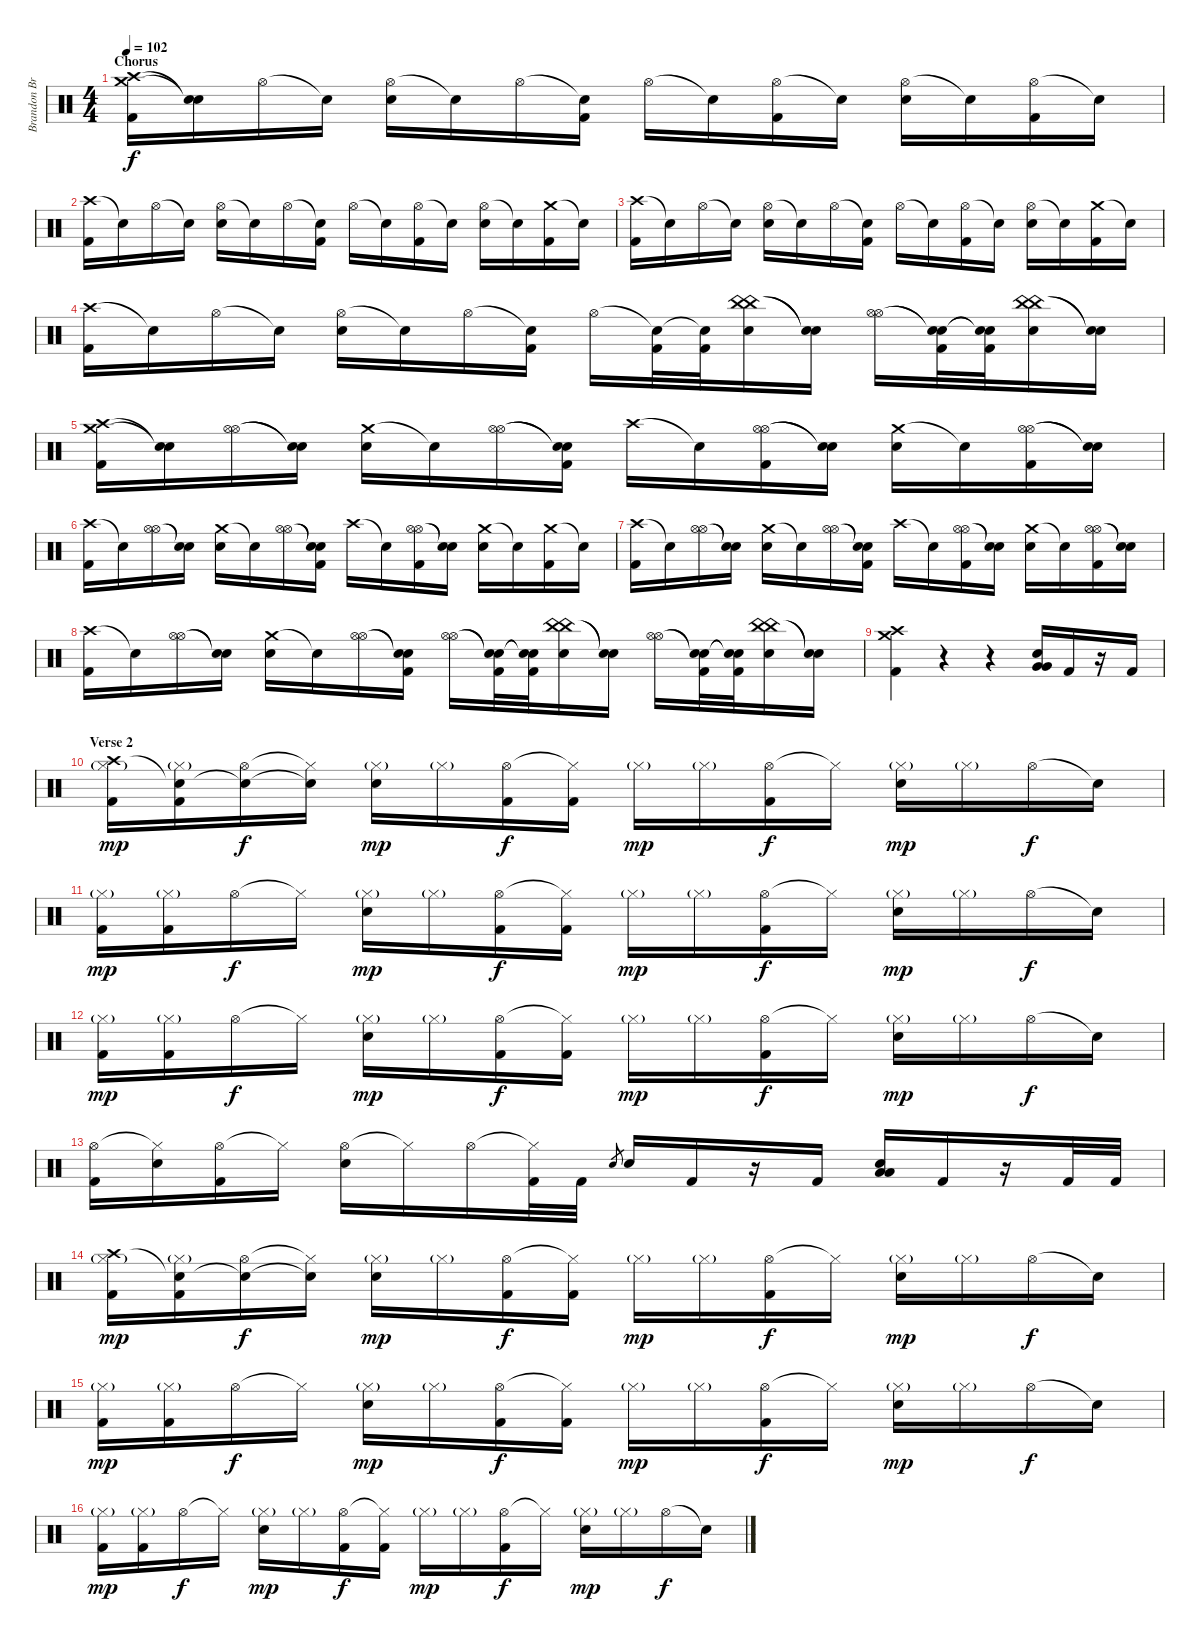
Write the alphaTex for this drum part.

\track ("Brandon Brown (Drums)" "Brandon Br") {instrument percussion}
\staff {score}
\articulation defaults
\ts (4 4)
\section ("" "Chorus")
\tempo 102
\clef neutral
\ks c
("Crash high (hit)" "Crash medium (hit)" "Kick (hit) 2").16{dy f} ("Snare (hit)"{t} "Snare (hit)"{t}).16 "Hi-Hat (open)".16 "Snare (hit)"{t}.16 ("Hi-Hat (open)" "Electric Snare (hit)").16 "Snare (hit)"{t}.16 "Hi-Hat (open)".16 ("Snare (hit)"{t} "Kick (hit) 2").16 "Hi-Hat (open)".16 "Snare (hit)"{t}.16 ("Hi-Hat (open)" "Kick (hit) 2").16 "Snare (hit)"{t}.16 ("Hi-Hat (open)" "Electric Snare (hit)").16 "Snare (hit)"{t}.16 ("Hi-Hat (open)" "Kick (hit) 2").16 "Snare (hit)"{t}.16 |
("Crash high (hit)" "Kick (hit) 2").16 "Snare (hit)"{t}.16 "Hi-Hat (open)".16 "Snare (hit)"{t}.16 ("Hi-Hat (open)" "Electric Snare (hit)").16 "Snare (hit)"{t}.16 "Hi-Hat (open)".16 ("Snare (hit)"{t} "Kick (hit) 2").16 "Hi-Hat (open)".16 "Snare (hit)"{t}.16 ("Hi-Hat (open)" "Kick (hit) 2").16 "Snare (hit)"{t}.16 ("Hi-Hat (open)" "Electric Snare (hit)").16 "Snare (hit)"{t}.16 ("Crash medium (hit)" "Kick (hit) 2").16 "Snare (hit)"{t}.16 |
("Crash high (hit)" "Kick (hit) 2").16 "Snare (hit)"{t}.16 "Hi-Hat (open)".16 "Snare (hit)"{t}.16 ("Hi-Hat (open)" "Electric Snare (hit)").16 "Snare (hit)"{t}.16 "Hi-Hat (open)".16 ("Snare (hit)"{t} "Kick (hit) 2").16 "Hi-Hat (open)".16 "Snare (hit)"{t}.16 ("Hi-Hat (open)" "Kick (hit) 2").16 "Snare (hit)"{t}.16 ("Hi-Hat (open)" "Electric Snare (hit)").16 "Snare (hit)"{t}.16 ("Crash medium (hit)" "Kick (hit) 2").16 "Snare (hit)"{t}.16 |
("Crash high (hit)" "Kick (hit) 2").16 "Snare (hit)"{t}.16 "Hi-Hat (open)".16 "Snare (hit)"{t}.16 ("Hi-Hat (open)" "Electric Snare (hit)").16 "Snare (hit)"{t}.16 "Hi-Hat (open)".16 ("Snare (hit)"{t} "Kick (hit) 2").16 "Hi-Hat (open)".16 ("Snare (hit)"{t} "Kick (hit) 2").32 ("Snare (hit)"{t} "Kick (hit) 2").32 ("China (hit)" "China (hit)" "Electric Snare (hit)").16 ("Snare (hit)"{t} "Snare (hit)"{t}).16 ("Hi-Hat (open)" "Hi-Hat (open)").16 ("Snare (hit)"{t} "Snare (hit)"{t} "Kick (hit) 2").32 ("Snare (hit)"{t} "Snare (hit)"{t} "Kick (hit) 2").32 ("China (hit)" "China (hit)" "Electric Snare (hit)").16 ("Snare (hit)"{t} "Snare (hit)"{t}).16 |
("Crash high (hit)" "Crash medium (hit)" "Kick (hit) 2").16 ("Snare (hit)"{t} "Snare (hit)"{t}).16 ("Hi-Hat (open)" "Hi-Hat (open)").16 ("Snare (hit)"{t} "Snare (hit)"{t}).16 ("Crash medium (hit)" "Electric Snare (hit)").16 "Snare (hit)"{t}.16 ("Hi-Hat (open)" "Hi-Hat (open)").16 ("Snare (hit)"{t} "Snare (hit)"{t} "Kick (hit) 2").16 "Crash high (hit)".16 "Snare (hit)"{t}.16 ("Hi-Hat (open)" "Hi-Hat (open)" "Kick (hit) 2").16 ("Snare (hit)"{t} "Snare (hit)"{t}).16 ("Crash medium (hit)" "Electric Snare (hit)").16 "Snare (hit)"{t}.16 ("Hi-Hat (open)" "Hi-Hat (open)" "Kick (hit) 2").16 ("Snare (hit)"{t} "Snare (hit)"{t}).16 |
("Crash high (hit)" "Kick (hit) 2").16 "Snare (hit)"{t}.16 ("Hi-Hat (open)" "Hi-Hat (open)").16 ("Snare (hit)"{t} "Snare (hit)"{t}).16 ("Crash medium (hit)" "Electric Snare (hit)").16 "Snare (hit)"{t}.16 ("Hi-Hat (open)" "Hi-Hat (open)").16 ("Snare (hit)"{t} "Snare (hit)"{t} "Kick (hit) 2").16 "Crash high (hit)".16 "Snare (hit)"{t}.16 ("Hi-Hat (open)" "Hi-Hat (open)" "Kick (hit) 2").16 ("Snare (hit)"{t} "Snare (hit)"{t}).16 ("Crash medium (hit)" "Electric Snare (hit)").16 "Snare (hit)"{t}.16 ("Crash medium (hit)" "Kick (hit) 2").16 "Snare (hit)"{t}.16 |
("Crash high (hit)" "Kick (hit) 2").16 "Snare (hit)"{t}.16 ("Hi-Hat (open)" "Hi-Hat (open)").16 ("Snare (hit)"{t} "Snare (hit)"{t}).16 ("Crash medium (hit)" "Electric Snare (hit)").16 "Snare (hit)"{t}.16 ("Hi-Hat (open)" "Hi-Hat (open)").16 ("Snare (hit)"{t} "Snare (hit)"{t} "Kick (hit) 2").16 "Crash high (hit)".16 "Snare (hit)"{t}.16 ("Hi-Hat (open)" "Hi-Hat (open)" "Kick (hit) 2").16 ("Snare (hit)"{t} "Snare (hit)"{t}).16 ("Crash medium (hit)" "Electric Snare (hit)").16 "Snare (hit)"{t}.16 ("Hi-Hat (open)" "Hi-Hat (open)" "Kick (hit) 2").16 ("Snare (hit)"{t} "Snare (hit)"{t}).16 |
("Crash high (hit)" "Kick (hit) 2").16 "Snare (hit)"{t}.16 ("Hi-Hat (open)" "Hi-Hat (open)").16 ("Snare (hit)"{t} "Snare (hit)"{t}).16 ("Crash medium (hit)" "Electric Snare (hit)").16 "Snare (hit)"{t}.16 ("Hi-Hat (open)" "Hi-Hat (open)").16 ("Snare (hit)"{t} "Snare (hit)"{t} "Kick (hit) 2").16 ("Hi-Hat (open)" "Hi-Hat (open)").16 ("Snare (hit)"{t} "Snare (hit)"{t} "Kick (hit) 2").32 ("Snare (hit)"{t} "Snare (hit)"{t} "Kick (hit) 2").32 ("China (hit)" "China (hit)" "Electric Snare (hit)").16 ("Snare (hit)"{t} "Snare (hit)"{t}).16 ("Hi-Hat (open)" "Hi-Hat (open)").16 ("Snare (hit)"{t} "Snare (hit)"{t} "Kick (hit) 2").32 ("Snare (hit)"{t} "Snare (hit)"{t} "Kick (hit) 2").32 ("China (hit)" "China (hit)" "Electric Snare (hit)").16 ("Snare (hit)"{t} "Snare (hit)"{t}).16 |
("Crash high (hit)" "Crash medium (hit)" "Kick (hit) 2").4 r.4 r.4 ("Electric Snare (hit)" "Very Low Tom (hit)" "Very Low Tom (hit)").16 "Kick (hit) 2".16 r.16 "Kick (hit) 2".16 |
\section ("" "Verse 2")
("Hi-Hat (closed)"{g} "Crash high (hit)" "Kick (hit) 2").16{dy mp} ("Hi-Hat (closed)"{g} "Snare (hit)"{t} "Kick (hit) 2").16 ("Hi-Hat (open)" "Snare (hit)"{t}).16{dy f} ("Hi-Hat (closed)"{t} "Snare (hit)"{t}).16 ("Hi-Hat (closed)"{g} "Electric Snare (hit)").16{dy mp} "Hi-Hat (closed)"{g}.16 ("Hi-Hat (open)" "Kick (hit) 2").16{dy f} ("Hi-Hat (closed)"{t} "Kick (hit) 2").16 "Hi-Hat (closed)"{g}.16{dy mp} "Hi-Hat (closed)"{g}.16 ("Hi-Hat (open)" "Kick (hit) 2").16{dy f} "Hi-Hat (closed)"{t}.16 ("Hi-Hat (closed)"{g} "Electric Snare (hit)").16{dy mp} "Hi-Hat (closed)"{g}.16 "Hi-Hat (open)".16{dy f} "Snare (hit)"{t}.16 |
("Hi-Hat (closed)"{g} "Kick (hit) 2").16{dy mp} ("Hi-Hat (closed)"{g} "Kick (hit) 2").16 "Hi-Hat (open)".16{dy f} "Hi-Hat (closed)"{t}.16 ("Hi-Hat (closed)"{g} "Electric Snare (hit)").16{dy mp} "Hi-Hat (closed)"{g}.16 ("Hi-Hat (open)" "Kick (hit) 2").16{dy f} ("Hi-Hat (closed)"{t} "Kick (hit) 2").16 "Hi-Hat (closed)"{g}.16{dy mp} "Hi-Hat (closed)"{g}.16 ("Hi-Hat (open)" "Kick (hit) 2").16{dy f} "Hi-Hat (closed)"{t}.16 ("Hi-Hat (closed)"{g} "Electric Snare (hit)").16{dy mp} "Hi-Hat (closed)"{g}.16 "Hi-Hat (open)".16{dy f} "Snare (hit)"{t}.16 |
("Hi-Hat (closed)"{g} "Kick (hit) 2").16{dy mp} ("Hi-Hat (closed)"{g} "Kick (hit) 2").16 "Hi-Hat (open)".16{dy f} "Hi-Hat (closed)"{t}.16 ("Hi-Hat (closed)"{g} "Electric Snare (hit)").16{dy mp} "Hi-Hat (closed)"{g}.16 ("Hi-Hat (open)" "Kick (hit) 2").16{dy f} ("Hi-Hat (closed)"{t} "Kick (hit) 2").16 "Hi-Hat (closed)"{g}.16{dy mp} "Hi-Hat (closed)"{g}.16 ("Hi-Hat (open)" "Kick (hit) 2").16{dy f} "Hi-Hat (closed)"{t}.16 ("Hi-Hat (closed)"{g} "Electric Snare (hit)").16{dy mp} "Hi-Hat (closed)"{g}.16 "Hi-Hat (open)".16{dy f} "Snare (hit)"{t}.16 |
("Hi-Hat (open)" "Kick (hit) 2").16 ("Hi-Hat (closed)"{t} "Electric Snare (hit)").16 ("Hi-Hat (open)" "Kick (hit) 2").16 "Hi-Hat (closed)"{t}.16 ("Hi-Hat (open)" "Electric Snare (hit)").16 "Hi-Hat (closed)"{t}.16 "Hi-Hat (open)".16 ("Hi-Hat (closed)"{t} "Kick (hit) 2").32 "Kick (hit) 2".32 "Electric Snare (hit)".8{gr} "Electric Snare (hit)".16 "Kick (hit) 2".16 r.16 "Kick (hit) 2".16 ("Low Tom (hit)" "Low Tom (hit)" "Electric Snare (hit)").16 "Kick (hit) 2".16 r.16 "Kick (hit) 2".32 "Kick (hit) 2".32 |
("Hi-Hat (closed)"{g} "Crash high (hit)" "Kick (hit) 2").16{dy mp} ("Hi-Hat (closed)"{g} "Snare (hit)"{t} "Kick (hit) 2").16 ("Hi-Hat (open)" "Snare (hit)"{t}).16{dy f} ("Hi-Hat (closed)"{t} "Snare (hit)"{t}).16 ("Hi-Hat (closed)"{g} "Electric Snare (hit)").16{dy mp} "Hi-Hat (closed)"{g}.16 ("Hi-Hat (open)" "Kick (hit) 2").16{dy f} ("Hi-Hat (closed)"{t} "Kick (hit) 2").16 "Hi-Hat (closed)"{g}.16{dy mp} "Hi-Hat (closed)"{g}.16 ("Hi-Hat (open)" "Kick (hit) 2").16{dy f} "Hi-Hat (closed)"{t}.16 ("Hi-Hat (closed)"{g} "Electric Snare (hit)").16{dy mp} "Hi-Hat (closed)"{g}.16 "Hi-Hat (open)".16{dy f} "Snare (hit)"{t}.16 |
("Hi-Hat (closed)"{g} "Kick (hit) 2").16{dy mp} ("Hi-Hat (closed)"{g} "Kick (hit) 2").16 "Hi-Hat (open)".16{dy f} "Hi-Hat (closed)"{t}.16 ("Hi-Hat (closed)"{g} "Electric Snare (hit)").16{dy mp} "Hi-Hat (closed)"{g}.16 ("Hi-Hat (open)" "Kick (hit) 2").16{dy f} ("Hi-Hat (closed)"{t} "Kick (hit) 2").16 "Hi-Hat (closed)"{g}.16{dy mp} "Hi-Hat (closed)"{g}.16 ("Hi-Hat (open)" "Kick (hit) 2").16{dy f} "Hi-Hat (closed)"{t}.16 ("Hi-Hat (closed)"{g} "Electric Snare (hit)").16{dy mp} "Hi-Hat (closed)"{g}.16 "Hi-Hat (open)".16{dy f} "Snare (hit)"{t}.16 |
("Hi-Hat (closed)"{g} "Kick (hit) 2").16{dy mp} ("Hi-Hat (closed)"{g} "Kick (hit) 2").16 "Hi-Hat (open)".16{dy f} "Hi-Hat (closed)"{t}.16 ("Hi-Hat (closed)"{g} "Electric Snare (hit)").16{dy mp} "Hi-Hat (closed)"{g}.16 ("Hi-Hat (open)" "Kick (hit) 2").16{dy f} ("Hi-Hat (closed)"{t} "Kick (hit) 2").16 "Hi-Hat (closed)"{g}.16{dy mp} "Hi-Hat (closed)"{g}.16 ("Hi-Hat (open)" "Kick (hit) 2").16{dy f} "Hi-Hat (closed)"{t}.16 ("Hi-Hat (closed)"{g} "Electric Snare (hit)").16{dy mp} "Hi-Hat (closed)"{g}.16 "Hi-Hat (open)".16{dy f} "Snare (hit)"{t}.16
